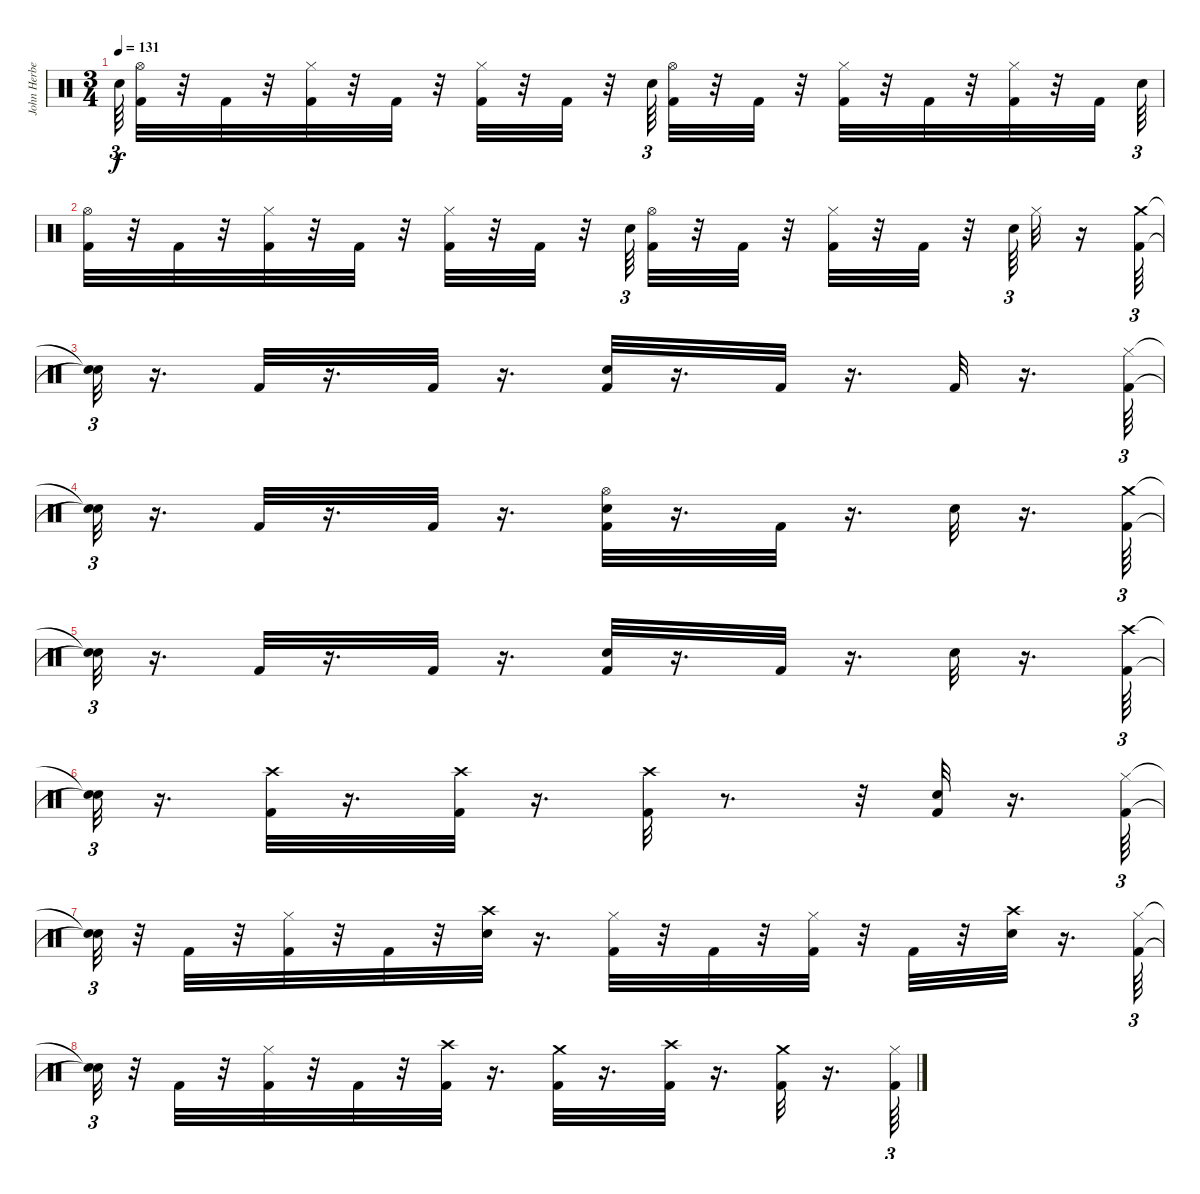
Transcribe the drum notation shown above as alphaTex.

\track ("John Herbert" "John Herbe") {instrument percussion}
\staff {score}
\articulation defaults
\ts (3 4)
\tempo 131
\clef neutral
\ks c "Snare (hit) 2".64{tu (3 2) dy f}
("Kick (hit) 2" "Hi-Hat (open)").32 r.32 "Kick (hit) 2".32 r.32 ("Kick (hit) 2" "Hi-Hat (closed)").32 r.32 "Kick (hit) 2".32 r.32 ("Kick (hit) 2" "Hi-Hat (closed)").32 r.32 "Kick (hit) 2".32 r.32 "Snare (hit) 2".64{tu (3 2)} ("Kick (hit) 2" "Hi-Hat (open)").32 r.32 "Kick (hit) 2".32 r.32 ("Kick (hit) 2" "Hi-Hat (closed)").32 r.32 "Kick (hit) 2".32 r.32 ("Kick (hit) 2" "Hi-Hat (closed)").32 r.32 "Kick (hit) 2".32 "Snare (hit) 2".64{tu (3 2)} |
("Kick (hit) 2" "Hi-Hat (open)").32 r.32 "Kick (hit) 2".32 r.32 ("Kick (hit) 2" "Hi-Hat (closed)").32 r.32 "Kick (hit) 2".32 r.32 ("Kick (hit) 2" "Hi-Hat (closed)").32 r.32 "Kick (hit) 2".32 r.32 "Snare (hit) 2".64{tu (3 2)} ("Kick (hit) 2" "Hi-Hat (open)").32 r.32 "Kick (hit) 2".32 r.32 ("Kick (hit) 2" "Hi-Hat (closed)").32 r.32 "Kick (hit) 2".32 r.32 "Snare (hit) 2".64{tu (3 2)} "Hi-Hat (closed)".32 r.16 ("Crash medium (hit)" "Kick (hit) 2").64{tu (3 2)} |
("Snare (hit)"{t} "Snare (hit)"{t}).32{tu (3 2)} r.16{d} "Kick (hit) 2".32 r.16{d} "Kick (hit) 2".32 r.16{d} ("Snare (hit) 2" "Kick (hit) 2").32 r.16{d} "Kick (hit) 2".32 r.16{d} "Kick (hit) 2".32 r.16{d} ("Hi-Hat (closed)" "Kick (hit) 2").64{tu (3 2)} |
("Snare (hit)"{t} "Snare (hit)"{t}).32{tu (3 2)} r.16{d} "Kick (hit) 2".32 r.16{d} "Kick (hit) 2".32 r.16{d} ("Hi-Hat (open)" "Kick (hit) 2" "Snare (hit) 2").32 r.16{d} "Kick (hit) 2".32 r.16{d} "Snare (hit) 2".32 r.16{d} ("Crash medium (hit)" "Kick (hit) 2").64{tu (3 2)} |
("Snare (hit)"{t} "Snare (hit)"{t}).32{tu (3 2)} r.16{d} "Kick (hit) 2".32 r.16{d} "Kick (hit) 2".32 r.16{d} ("Snare (hit) 2" "Kick (hit) 2").32 r.16{d} "Kick (hit) 2".32 r.16{d} "Snare (hit) 2".32 r.16{d} ("Kick (hit) 2" "Crash high (hit)").64{tu (3 2)} |
("Snare (hit)"{t} "Snare (hit)"{t}).32{tu (3 2)} r.16{d} ("Kick (hit) 2" "Crash high (hit)").32 r.16{d} ("Kick (hit) 2" "Crash high (hit)").32 r.16{d} ("Kick (hit) 2" "Crash high (hit)").32 r.8{d} r.32 ("Snare (hit) 2" "Kick (hit) 2").32 r.16{d} ("Hi-Hat (closed)" "Kick (hit) 2").64{tu (3 2)} |
("Snare (hit)"{t} "Snare (hit)"{t}).32{tu (3 2)} r.32 "Kick (hit) 2".32 r.32 ("Hi-Hat (closed)" "Kick (hit) 2").32 r.32 "Kick (hit) 2".32 r.32 ("Crash high (hit)" "Snare (hit) 2").32 r.16{d} ("Hi-Hat (closed)" "Kick (hit) 2").32 r.32 "Kick (hit) 2".32 r.32 ("Hi-Hat (closed)" "Kick (hit) 2").32 r.32 "Kick (hit) 2".32 r.32 ("Crash high (hit)" "Snare (hit) 2").32 r.16{d} ("Hi-Hat (closed)" "Kick (hit) 2").64{tu (3 2)} |
("Snare (hit)"{t} "Snare (hit)"{t}).32{tu (3 2)} r.32 "Kick (hit) 2".32 r.32 ("Hi-Hat (closed)" "Kick (hit) 2").32 r.32 "Kick (hit) 2".32 r.32 ("Crash high (hit)" "Kick (hit) 2").32 r.16{d} ("Kick (hit) 2" "Crash medium (hit)").32 r.16{d} ("Crash high (hit)" "Kick (hit) 2").32 r.16{d} ("Kick (hit) 2" "Crash medium (hit)").32 r.16{d} ("Hi-Hat (closed)" "Kick (hit) 2").64{tu (3 2)}
